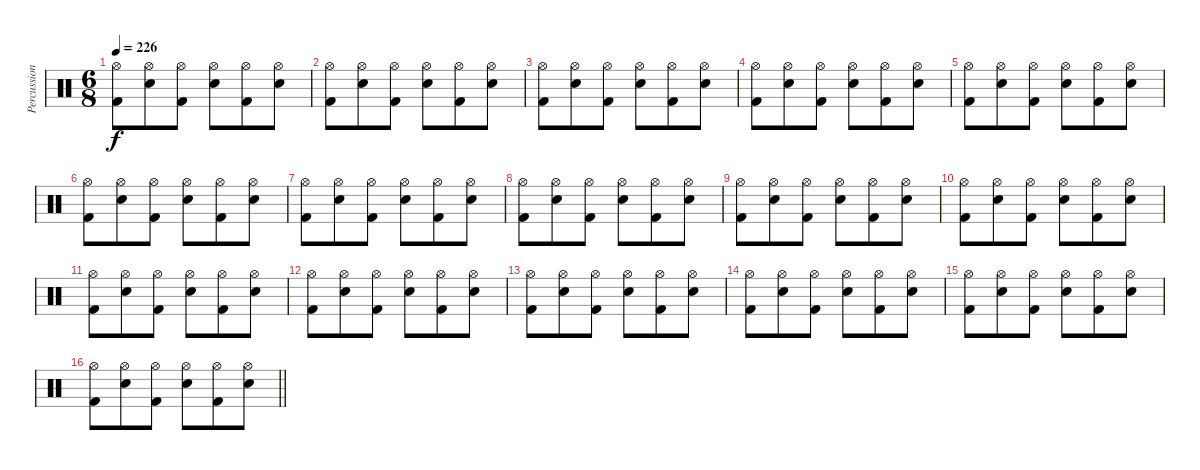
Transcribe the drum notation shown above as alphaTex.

\track ("Percussion" "Percussion") {instrument percussion}
\staff {score}
\articulation defaults
\ts (6 8)
\tempo 226
\clef neutral
\ks c
("Hi-Hat (open)" "Kick (hit) 2").8{dy f} ("Hi-Hat (open)" "Electric Snare (hit)").8 ("Hi-Hat (open)" "Kick (hit) 2").8 ("Hi-Hat (open)" "Electric Snare (hit)").8 ("Hi-Hat (open)" "Kick (hit) 2").8 ("Hi-Hat (open)" "Electric Snare (hit)").8 |
("Hi-Hat (open)" "Kick (hit) 2").8 ("Hi-Hat (open)" "Electric Snare (hit)").8 ("Hi-Hat (open)" "Kick (hit) 2").8 ("Hi-Hat (open)" "Electric Snare (hit)").8 ("Hi-Hat (open)" "Kick (hit) 2").8 ("Hi-Hat (open)" "Electric Snare (hit)").8 |
("Hi-Hat (open)" "Kick (hit) 2").8 ("Hi-Hat (open)" "Electric Snare (hit)").8 ("Hi-Hat (open)" "Kick (hit) 2").8 ("Hi-Hat (open)" "Electric Snare (hit)").8 ("Hi-Hat (open)" "Kick (hit) 2").8 ("Hi-Hat (open)" "Electric Snare (hit)").8 |
("Hi-Hat (open)" "Kick (hit) 2").8 ("Hi-Hat (open)" "Electric Snare (hit)").8 ("Hi-Hat (open)" "Kick (hit) 2").8 ("Hi-Hat (open)" "Electric Snare (hit)").8 ("Hi-Hat (open)" "Kick (hit) 2").8 ("Hi-Hat (open)" "Electric Snare (hit)").8 |
("Hi-Hat (open)" "Kick (hit) 2").8 ("Hi-Hat (open)" "Electric Snare (hit)").8 ("Hi-Hat (open)" "Kick (hit) 2").8 ("Hi-Hat (open)" "Electric Snare (hit)").8 ("Hi-Hat (open)" "Kick (hit) 2").8 ("Hi-Hat (open)" "Electric Snare (hit)").8 |
("Hi-Hat (open)" "Kick (hit) 2").8 ("Hi-Hat (open)" "Electric Snare (hit)").8 ("Hi-Hat (open)" "Kick (hit) 2").8 ("Hi-Hat (open)" "Electric Snare (hit)").8 ("Hi-Hat (open)" "Kick (hit) 2").8 ("Hi-Hat (open)" "Electric Snare (hit)").8 |
("Hi-Hat (open)" "Kick (hit) 2").8 ("Hi-Hat (open)" "Electric Snare (hit)").8 ("Hi-Hat (open)" "Kick (hit) 2").8 ("Hi-Hat (open)" "Electric Snare (hit)").8 ("Hi-Hat (open)" "Kick (hit) 2").8 ("Hi-Hat (open)" "Electric Snare (hit)").8 |
("Hi-Hat (open)" "Kick (hit) 2").8 ("Hi-Hat (open)" "Electric Snare (hit)").8 ("Hi-Hat (open)" "Kick (hit) 2").8 ("Hi-Hat (open)" "Electric Snare (hit)").8 ("Hi-Hat (open)" "Kick (hit) 2").8 ("Hi-Hat (open)" "Electric Snare (hit)").8 |
("Hi-Hat (open)" "Kick (hit) 2").8 ("Hi-Hat (open)" "Electric Snare (hit)").8 ("Hi-Hat (open)" "Kick (hit) 2").8 ("Hi-Hat (open)" "Electric Snare (hit)").8 ("Hi-Hat (open)" "Kick (hit) 2").8 ("Hi-Hat (open)" "Electric Snare (hit)").8 |
("Hi-Hat (open)" "Kick (hit) 2").8 ("Hi-Hat (open)" "Electric Snare (hit)").8 ("Hi-Hat (open)" "Kick (hit) 2").8 ("Hi-Hat (open)" "Electric Snare (hit)").8 ("Hi-Hat (open)" "Kick (hit) 2").8 ("Hi-Hat (open)" "Electric Snare (hit)").8 |
("Hi-Hat (open)" "Kick (hit) 2").8 ("Hi-Hat (open)" "Electric Snare (hit)").8 ("Hi-Hat (open)" "Kick (hit) 2").8 ("Hi-Hat (open)" "Electric Snare (hit)").8 ("Hi-Hat (open)" "Kick (hit) 2").8 ("Hi-Hat (open)" "Electric Snare (hit)").8 |
("Hi-Hat (open)" "Kick (hit) 2").8 ("Hi-Hat (open)" "Electric Snare (hit)").8 ("Hi-Hat (open)" "Kick (hit) 2").8 ("Hi-Hat (open)" "Electric Snare (hit)").8 ("Hi-Hat (open)" "Kick (hit) 2").8 ("Hi-Hat (open)" "Electric Snare (hit)").8 |
("Hi-Hat (open)" "Kick (hit) 2").8 ("Hi-Hat (open)" "Electric Snare (hit)").8 ("Hi-Hat (open)" "Kick (hit) 2").8 ("Hi-Hat (open)" "Electric Snare (hit)").8 ("Hi-Hat (open)" "Kick (hit) 2").8 ("Hi-Hat (open)" "Electric Snare (hit)").8 |
("Hi-Hat (open)" "Kick (hit) 2").8 ("Hi-Hat (open)" "Electric Snare (hit)").8 ("Hi-Hat (open)" "Kick (hit) 2").8 ("Hi-Hat (open)" "Electric Snare (hit)").8 ("Hi-Hat (open)" "Kick (hit) 2").8 ("Hi-Hat (open)" "Electric Snare (hit)").8 |
("Hi-Hat (open)" "Kick (hit) 2").8 ("Hi-Hat (open)" "Electric Snare (hit)").8 ("Hi-Hat (open)" "Kick (hit) 2").8 ("Hi-Hat (open)" "Electric Snare (hit)").8 ("Hi-Hat (open)" "Kick (hit) 2").8 ("Hi-Hat (open)" "Electric Snare (hit)").8 |
\barLineRight lightlight
("Hi-Hat (open)" "Kick (hit) 2").8 ("Hi-Hat (open)" "Electric Snare (hit)").8 ("Hi-Hat (open)" "Kick (hit) 2").8 ("Hi-Hat (open)" "Electric Snare (hit)").8 ("Hi-Hat (open)" "Kick (hit) 2").8 ("Hi-Hat (open)" "Electric Snare (hit)").8
